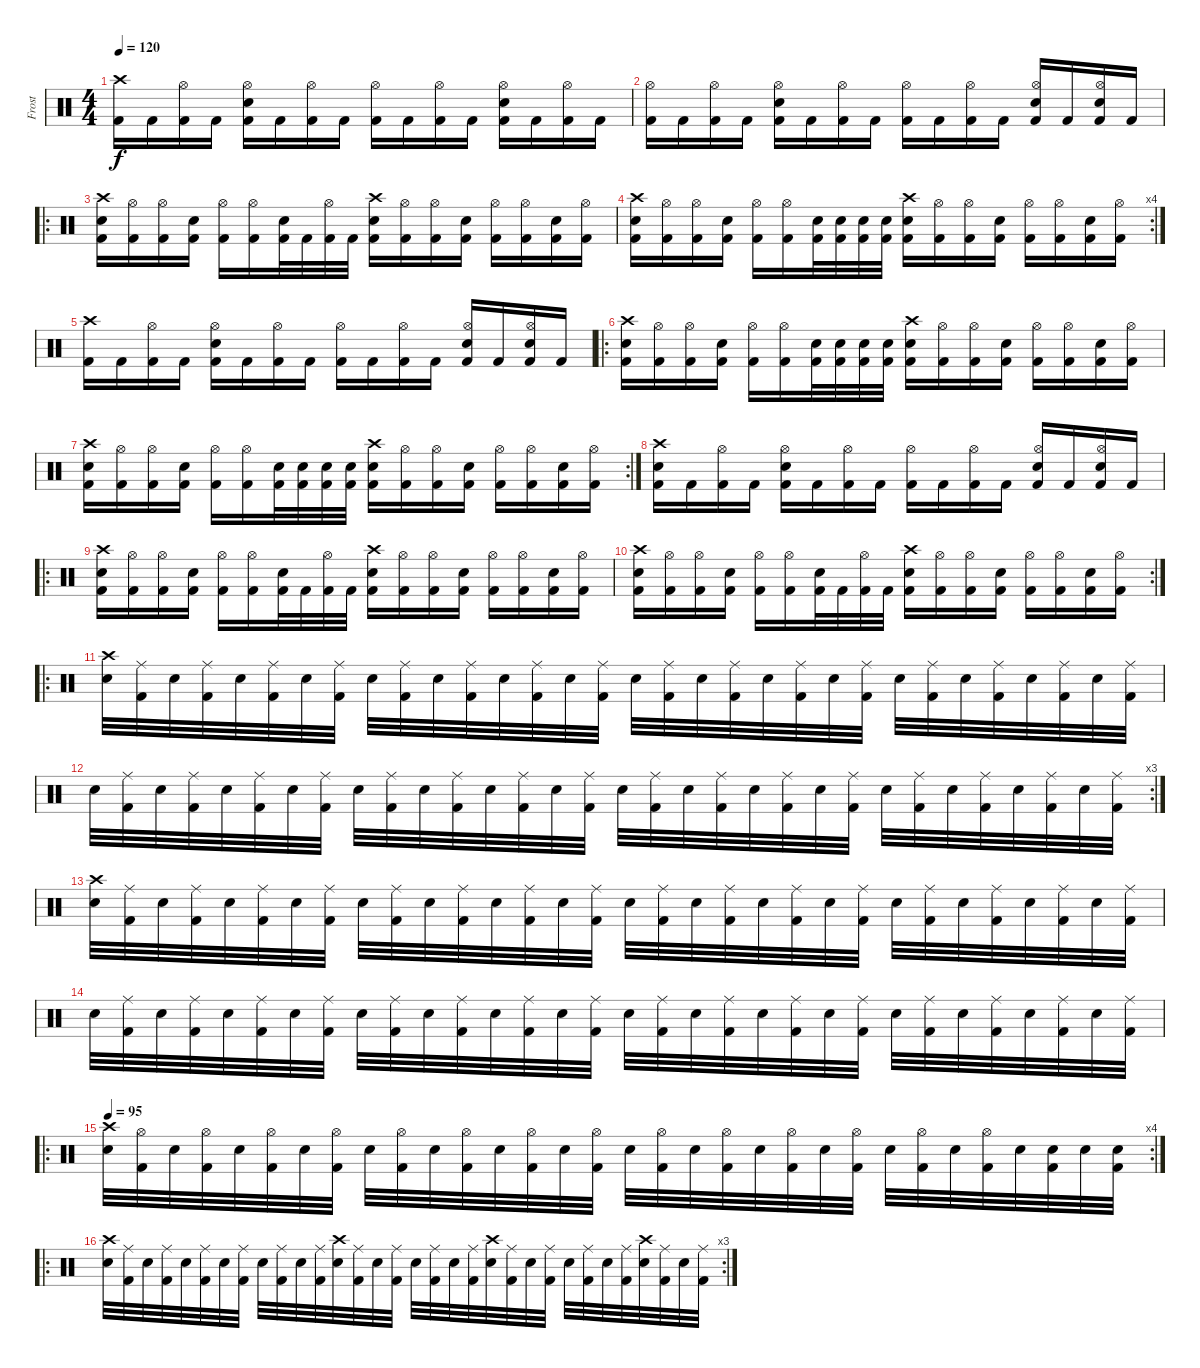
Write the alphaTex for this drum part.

\track ("Frost" "Frost") {instrument percussion}
\staff {score}
\articulation defaults
\ts (4 4)
\tempo 120
\clef neutral
\ks c
("Crash high (hit)" "Kick (hit) 2").16{dy f} "Kick (hit) 2".16 ("Hi-Hat (open)" "Kick (hit) 2").16 "Kick (hit) 2".16 ("Hi-Hat (open)" "Snare (hit) 2" "Kick (hit) 2").16 "Kick (hit) 2".16 ("Hi-Hat (open)" "Kick (hit) 2").16 "Kick (hit) 2".16 ("Hi-Hat (open)" "Kick (hit) 2").16 "Kick (hit) 2".16 ("Hi-Hat (open)" "Kick (hit) 2").16 "Kick (hit) 2".16 ("Hi-Hat (open)" "Snare (hit) 2" "Kick (hit) 2").16 "Kick (hit) 2".16 ("Hi-Hat (open)" "Kick (hit) 2").16 "Kick (hit) 2".16 |
("Hi-Hat (open)" "Kick (hit) 2").16 "Kick (hit) 2".16 ("Hi-Hat (open)" "Kick (hit) 2").16 "Kick (hit) 2".16 ("Hi-Hat (open)" "Snare (hit) 2" "Kick (hit) 2").16 "Kick (hit) 2".16 ("Hi-Hat (open)" "Kick (hit) 2").16 "Kick (hit) 2".16 ("Hi-Hat (open)" "Kick (hit) 2").16 "Kick (hit) 2".16 ("Hi-Hat (open)" "Kick (hit) 2").16 "Kick (hit) 2".16 ("Hi-Hat (open)" "Snare (hit) 2" "Kick (hit) 2").16 "Kick (hit) 2".16 ("Hi-Hat (open)" "Snare (hit) 2" "Kick (hit) 2").16 "Kick (hit) 2".16 |
\ro
("Crash high (hit)" "Snare (hit) 2" "Kick (hit) 2").16 ("Hi-Hat (open)" "Kick (hit) 2").16 ("Hi-Hat (open)" "Kick (hit) 2").16 ("Snare (hit) 2" "Kick (hit) 2").16 ("Hi-Hat (open)" "Kick (hit) 2").16 ("Hi-Hat (open)" "Kick (hit) 2").16 ("Snare (hit) 2" "Kick (hit) 2").32 "Kick (hit) 2".32 ("Hi-Hat (open)" "Kick (hit) 2").32 "Kick (hit) 2".32 ("Crash high (hit)" "Snare (hit) 2" "Kick (hit) 2").16 ("Hi-Hat (open)" "Kick (hit) 2").16 ("Hi-Hat (open)" "Kick (hit) 2").16 ("Snare (hit) 2" "Kick (hit) 2").16 ("Hi-Hat (open)" "Kick (hit) 2").16 ("Hi-Hat (open)" "Kick (hit) 2").16 ("Snare (hit) 2" "Kick (hit) 2").16 ("Hi-Hat (open)" "Kick (hit) 2").16 |
\rc 4
("Crash high (hit)" "Snare (hit) 2" "Kick (hit) 2").16 ("Hi-Hat (open)" "Kick (hit) 2").16 ("Hi-Hat (open)" "Kick (hit) 2").16 ("Snare (hit) 2" "Kick (hit) 2").16 ("Hi-Hat (open)" "Kick (hit) 2").16 ("Hi-Hat (open)" "Kick (hit) 2").16 ("Snare (hit) 2" "Kick (hit) 2").32 ("Snare (hit) 2" "Kick (hit) 2").32 ("Snare (hit) 2" "Kick (hit) 2").32 ("Snare (hit) 2" "Kick (hit) 2").32 ("Crash high (hit)" "Snare (hit) 2" "Kick (hit) 2").16 ("Hi-Hat (open)" "Kick (hit) 2").16 ("Hi-Hat (open)" "Kick (hit) 2").16 ("Snare (hit) 2" "Kick (hit) 2").16 ("Hi-Hat (open)" "Kick (hit) 2").16 ("Hi-Hat (open)" "Kick (hit) 2").16 ("Snare (hit) 2" "Kick (hit) 2").16 ("Hi-Hat (open)" "Kick (hit) 2").16 |
("Crash high (hit)" "Kick (hit) 2").16 "Kick (hit) 2".16 ("Hi-Hat (open)" "Kick (hit) 2").16 "Kick (hit) 2".16 ("Hi-Hat (open)" "Snare (hit) 2" "Kick (hit) 2").16 "Kick (hit) 2".16 ("Hi-Hat (open)" "Kick (hit) 2").16 "Kick (hit) 2".16 ("Hi-Hat (open)" "Kick (hit) 2").16 "Kick (hit) 2".16 ("Hi-Hat (open)" "Kick (hit) 2").16 "Kick (hit) 2".16 ("Hi-Hat (open)" "Snare (hit) 2" "Kick (hit) 2").16 "Kick (hit) 2".16 ("Hi-Hat (open)" "Snare (hit) 2" "Kick (hit) 2").16 "Kick (hit) 2".16 |
\ro
("Crash high (hit)" "Snare (hit) 2" "Kick (hit) 2").16 ("Hi-Hat (open)" "Kick (hit) 2").16 ("Hi-Hat (open)" "Kick (hit) 2").16 ("Snare (hit) 2" "Kick (hit) 2").16 ("Hi-Hat (open)" "Kick (hit) 2").16 ("Hi-Hat (open)" "Kick (hit) 2").16 ("Snare (hit) 2" "Kick (hit) 2").32 ("Snare (hit) 2" "Kick (hit) 2").32 ("Snare (hit) 2" "Kick (hit) 2").32 ("Snare (hit) 2" "Kick (hit) 2").32 ("Crash high (hit)" "Snare (hit) 2" "Kick (hit) 2").16 ("Hi-Hat (open)" "Kick (hit) 2").16 ("Hi-Hat (open)" "Kick (hit) 2").16 ("Snare (hit) 2" "Kick (hit) 2").16 ("Hi-Hat (open)" "Kick (hit) 2").16 ("Hi-Hat (open)" "Kick (hit) 2").16 ("Snare (hit) 2" "Kick (hit) 2").16 ("Hi-Hat (open)" "Kick (hit) 2").16 |
\rc 2
("Crash high (hit)" "Snare (hit) 2" "Kick (hit) 2").16 ("Hi-Hat (open)" "Kick (hit) 2").16 ("Hi-Hat (open)" "Kick (hit) 2").16 ("Snare (hit) 2" "Kick (hit) 2").16 ("Hi-Hat (open)" "Kick (hit) 2").16 ("Hi-Hat (open)" "Kick (hit) 2").16 ("Snare (hit) 2" "Kick (hit) 2").32 ("Snare (hit) 2" "Kick (hit) 2").32 ("Snare (hit) 2" "Kick (hit) 2").32 ("Snare (hit) 2" "Kick (hit) 2").32 ("Crash high (hit)" "Snare (hit) 2" "Kick (hit) 2").16 ("Hi-Hat (open)" "Kick (hit) 2").16 ("Hi-Hat (open)" "Kick (hit) 2").16 ("Snare (hit) 2" "Kick (hit) 2").16 ("Hi-Hat (open)" "Kick (hit) 2").16 ("Hi-Hat (open)" "Kick (hit) 2").16 ("Snare (hit) 2" "Kick (hit) 2").16 ("Hi-Hat (open)" "Kick (hit) 2").16 |
("Crash high (hit)" "Snare (hit) 2" "Kick (hit) 2").16 "Kick (hit) 2".16 ("Hi-Hat (open)" "Kick (hit) 2").16 "Kick (hit) 2".16 ("Hi-Hat (open)" "Snare (hit) 2" "Kick (hit) 2").16 "Kick (hit) 2".16 ("Hi-Hat (open)" "Kick (hit) 2").16 "Kick (hit) 2".16 ("Hi-Hat (open)" "Kick (hit) 2").16 "Kick (hit) 2".16 ("Hi-Hat (open)" "Kick (hit) 2").16 "Kick (hit) 2".16 ("Hi-Hat (open)" "Snare (hit) 2" "Kick (hit) 2").16 "Kick (hit) 2".16 ("Hi-Hat (open)" "Snare (hit) 2" "Kick (hit) 2").16 "Kick (hit) 2".16 |
\ro
("Crash high (hit)" "Snare (hit) 2" "Kick (hit) 2").16 ("Hi-Hat (open)" "Kick (hit) 2").16 ("Hi-Hat (open)" "Kick (hit) 2").16 ("Snare (hit) 2" "Kick (hit) 2").16 ("Hi-Hat (open)" "Kick (hit) 2").16 ("Hi-Hat (open)" "Kick (hit) 2").16 ("Snare (hit) 2" "Kick (hit) 2").32 "Kick (hit) 2".32 ("Hi-Hat (open)" "Kick (hit) 2").32 "Kick (hit) 2".32 ("Crash high (hit)" "Snare (hit) 2" "Kick (hit) 2").16 ("Hi-Hat (open)" "Kick (hit) 2").16 ("Hi-Hat (open)" "Kick (hit) 2").16 ("Snare (hit) 2" "Kick (hit) 2").16 ("Hi-Hat (open)" "Kick (hit) 2").16 ("Hi-Hat (open)" "Kick (hit) 2").16 ("Snare (hit) 2" "Kick (hit) 2").16 ("Hi-Hat (open)" "Kick (hit) 2").16 |
\rc 2
("Crash high (hit)" "Snare (hit) 2" "Kick (hit) 2").16 ("Hi-Hat (open)" "Kick (hit) 2").16 ("Hi-Hat (open)" "Kick (hit) 2").16 ("Snare (hit) 2" "Kick (hit) 2").16 ("Hi-Hat (open)" "Kick (hit) 2").16 ("Hi-Hat (open)" "Kick (hit) 2").16 ("Snare (hit) 2" "Kick (hit) 2").32 "Kick (hit) 2".32 ("Hi-Hat (open)" "Kick (hit) 2").32 "Kick (hit) 2".32 ("Crash high (hit)" "Snare (hit) 2" "Kick (hit) 2").16 ("Hi-Hat (open)" "Kick (hit) 2").16 ("Hi-Hat (open)" "Kick (hit) 2").16 ("Snare (hit) 2" "Kick (hit) 2").16 ("Hi-Hat (open)" "Kick (hit) 2").16 ("Hi-Hat (open)" "Kick (hit) 2").16 ("Snare (hit) 2" "Kick (hit) 2").16 ("Hi-Hat (open)" "Kick (hit) 2").16 |
\ro
("Crash high (hit)" "Snare (hit) 2").32 ("Ride (middle)" "Kick (hit) 2").32 "Snare (hit) 2".32 ("Ride (middle)" "Kick (hit) 2").32 "Snare (hit) 2".32 ("Ride (middle)" "Kick (hit) 2").32 "Snare (hit) 2".32 ("Ride (middle)" "Kick (hit) 2").32 "Snare (hit) 2".32 ("Ride (middle)" "Kick (hit) 2").32 "Snare (hit) 2".32 ("Ride (middle)" "Kick (hit) 2").32 "Snare (hit) 2".32 ("Ride (middle)" "Kick (hit) 2").32 "Snare (hit) 2".32 ("Ride (middle)" "Kick (hit) 2").32 "Snare (hit) 2".32 ("Ride (middle)" "Kick (hit) 2").32 "Snare (hit) 2".32 ("Ride (middle)" "Kick (hit) 2").32 "Snare (hit) 2".32 ("Ride (middle)" "Kick (hit) 2").32 "Snare (hit) 2".32 ("Ride (middle)" "Kick (hit) 2").32 "Snare (hit) 2".32 ("Ride (middle)" "Kick (hit) 2").32 "Snare (hit) 2".32 ("Ride (middle)" "Kick (hit) 2").32 "Snare (hit) 2".32 ("Ride (middle)" "Kick (hit) 2").32 "Snare (hit) 2".32 ("Ride (middle)" "Kick (hit) 2").32 |
\rc 3 "Snare (hit) 2".32
("Ride (middle)" "Kick (hit) 2").32 "Snare (hit) 2".32 ("Ride (middle)" "Kick (hit) 2").32 "Snare (hit) 2".32 ("Ride (middle)" "Kick (hit) 2").32 "Snare (hit) 2".32 ("Ride (middle)" "Kick (hit) 2").32 "Snare (hit) 2".32 ("Ride (middle)" "Kick (hit) 2").32 "Snare (hit) 2".32 ("Ride (middle)" "Kick (hit) 2").32 "Snare (hit) 2".32 ("Ride (middle)" "Kick (hit) 2").32 "Snare (hit) 2".32 ("Ride (middle)" "Kick (hit) 2").32 "Snare (hit) 2".32 ("Ride (middle)" "Kick (hit) 2").32 "Snare (hit) 2".32 ("Ride (middle)" "Kick (hit) 2").32 "Snare (hit) 2".32 ("Ride (middle)" "Kick (hit) 2").32 "Snare (hit) 2".32 ("Ride (middle)" "Kick (hit) 2").32 "Snare (hit) 2".32 ("Ride (middle)" "Kick (hit) 2").32 "Snare (hit) 2".32 ("Ride (middle)" "Kick (hit) 2").32 "Snare (hit) 2".32 ("Ride (middle)" "Kick (hit) 2").32 "Snare (hit) 2".32 ("Ride (middle)" "Kick (hit) 2").32 |
("Crash high (hit)" "Snare (hit) 2").32 ("Ride (middle)" "Kick (hit) 2").32 "Snare (hit) 2".32 ("Ride (middle)" "Kick (hit) 2").32 "Snare (hit) 2".32 ("Ride (middle)" "Kick (hit) 2").32 "Snare (hit) 2".32 ("Ride (middle)" "Kick (hit) 2").32 "Snare (hit) 2".32 ("Ride (middle)" "Kick (hit) 2").32 "Snare (hit) 2".32 ("Ride (middle)" "Kick (hit) 2").32 "Snare (hit) 2".32 ("Ride (middle)" "Kick (hit) 2").32 "Snare (hit) 2".32 ("Ride (middle)" "Kick (hit) 2").32 "Snare (hit) 2".32 ("Ride (middle)" "Kick (hit) 2").32 "Snare (hit) 2".32 ("Ride (middle)" "Kick (hit) 2").32 "Snare (hit) 2".32 ("Ride (middle)" "Kick (hit) 2").32 "Snare (hit) 2".32 ("Ride (middle)" "Kick (hit) 2").32 "Snare (hit) 2".32 ("Ride (middle)" "Kick (hit) 2").32 "Snare (hit) 2".32 ("Ride (middle)" "Kick (hit) 2").32 "Snare (hit) 2".32 ("Ride (middle)" "Kick (hit) 2").32 "Snare (hit) 2".32 ("Ride (middle)" "Kick (hit) 2").32 |
"Snare (hit) 2".32 ("Ride (middle)" "Kick (hit) 2").32 "Snare (hit) 2".32 ("Ride (middle)" "Kick (hit) 2").32 "Snare (hit) 2".32 ("Ride (middle)" "Kick (hit) 2").32 "Snare (hit) 2".32 ("Ride (middle)" "Kick (hit) 2").32 "Snare (hit) 2".32 ("Ride (middle)" "Kick (hit) 2").32 "Snare (hit) 2".32 ("Ride (middle)" "Kick (hit) 2").32 "Snare (hit) 2".32 ("Ride (middle)" "Kick (hit) 2").32 "Snare (hit) 2".32 ("Ride (middle)" "Kick (hit) 2").32 "Snare (hit) 2".32 ("Ride (middle)" "Kick (hit) 2").32 "Snare (hit) 2".32 ("Ride (middle)" "Kick (hit) 2").32 "Snare (hit) 2".32 ("Ride (middle)" "Kick (hit) 2").32 "Snare (hit) 2".32 ("Ride (middle)" "Kick (hit) 2").32 "Snare (hit) 2".32 ("Ride (middle)" "Kick (hit) 2").32 "Snare (hit) 2".32 ("Ride (middle)" "Kick (hit) 2").32 "Snare (hit) 2".32 ("Ride (middle)" "Kick (hit) 2").32 "Snare (hit) 2".32 ("Ride (middle)" "Kick (hit) 2").32 |
\ro
\rc 4
\tempo 95
("Crash high (hit)" "Snare (hit) 2").32 ("Hi-Hat (open)" "Kick (hit) 2").32 "Snare (hit) 2".32 ("Hi-Hat (open)" "Kick (hit) 2").32 "Snare (hit) 2".32 ("Hi-Hat (open)" "Kick (hit) 2").32 "Snare (hit) 2".32 ("Hi-Hat (open)" "Kick (hit) 2").32 "Snare (hit) 2".32 ("Hi-Hat (open)" "Kick (hit) 2").32 "Snare (hit) 2".32 ("Hi-Hat (open)" "Kick (hit) 2").32 "Snare (hit) 2".32 ("Hi-Hat (open)" "Kick (hit) 2").32 "Snare (hit) 2".32 ("Hi-Hat (open)" "Kick (hit) 2").32 "Snare (hit) 2".32 ("Hi-Hat (open)" "Kick (hit) 2").32 "Snare (hit) 2".32 ("Hi-Hat (open)" "Kick (hit) 2").32 "Snare (hit) 2".32 ("Hi-Hat (open)" "Kick (hit) 2").32 "Snare (hit) 2".32 ("Hi-Hat (open)" "Kick (hit) 2").32 "Snare (hit) 2".32 ("Hi-Hat (open)" "Kick (hit) 2").32 "Snare (hit) 2".32 ("Hi-Hat (open)" "Kick (hit) 2").32 "Snare (hit) 2".32 ("Snare (hit) 2" "Kick (hit) 2").32 "Snare (hit) 2".32 ("Snare (hit) 2" "Kick (hit) 2").32 |
\ro
\rc 3
("Crash high (hit)" "Snare (hit) 2").32 ("Ride (middle)" "Kick (hit) 2").32 "Snare (hit) 2".32 ("Ride (middle)" "Kick (hit) 2").32 "Snare (hit) 2".32 ("Ride (middle)" "Kick (hit) 2").32 "Snare (hit) 2".32 ("Ride (middle)" "Kick (hit) 2").32 "Snare (hit) 2".32 ("Ride (middle)" "Kick (hit) 2").32 "Snare (hit) 2".32 ("Ride (middle)" "Kick (hit) 2").32 ("Crash high (hit)" "Snare (hit) 2").32 ("Ride (middle)" "Kick (hit) 2").32 "Snare (hit) 2".32 ("Ride (middle)" "Kick (hit) 2").32 "Snare (hit) 2".32 ("Ride (middle)" "Kick (hit) 2").32 "Snare (hit) 2".32 ("Ride (middle)" "Kick (hit) 2").32 ("Crash high (hit)" "Snare (hit) 2").32 ("Ride (middle)" "Kick (hit) 2").32 "Snare (hit) 2".32 ("Ride (middle)" "Kick (hit) 2").32 "Snare (hit) 2".32 ("Ride (middle)" "Kick (hit) 2").32 "Snare (hit) 2".32 ("Ride (middle)" "Kick (hit) 2").32 ("Crash high (hit)" "Snare (hit) 2").32 ("Ride (middle)" "Kick (hit) 2").32 "Snare (hit) 2".32 ("Ride (middle)" "Kick (hit) 2").32
